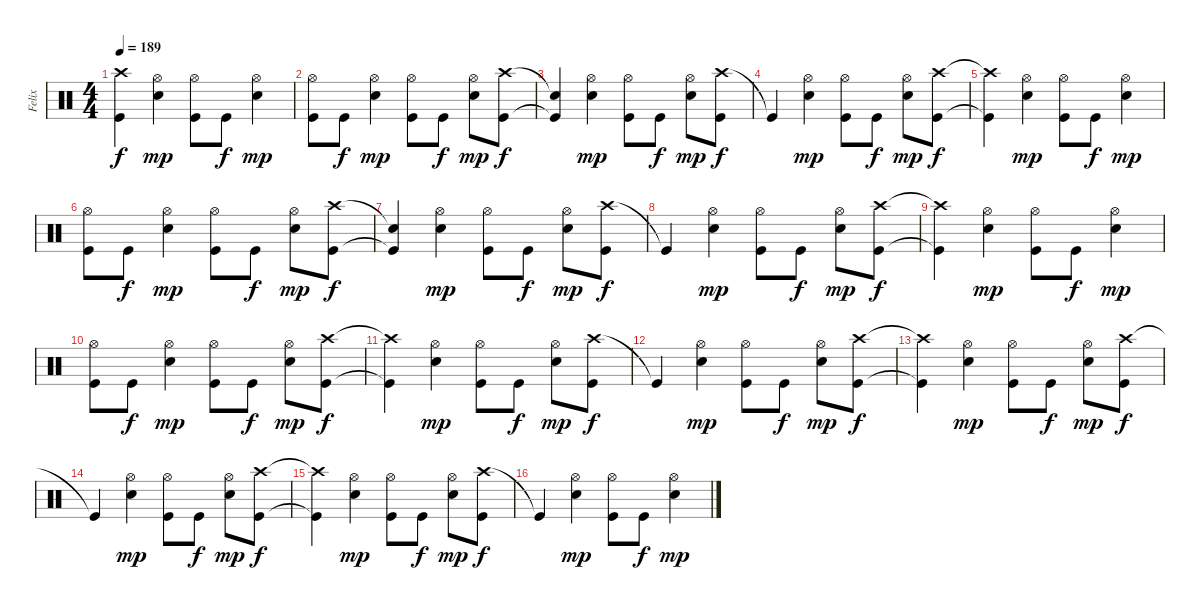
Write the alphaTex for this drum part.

\track ("Felix" "Felix") {instrument percussion}
\staff {score}
\articulation defaults
\ts (4 4)
\tempo 189
\clef neutral
\ks c
("Crash high (hit)"{t} "Kick (hit)"{t}).4{dy f} ("Hi-Hat (open)" "Snare (hit) 2").4{dy mp} ("Hi-Hat (open)" "Kick (hit)").8 "Kick (hit)".8{dy f} ("Hi-Hat (open)" "Snare (hit) 2").4{dy mp} |
("Hi-Hat (open)" "Kick (hit)").8 "Kick (hit)".8{dy f} ("Hi-Hat (open)" "Snare (hit) 2").4{dy mp} ("Hi-Hat (open)" "Kick (hit)").8 "Kick (hit)".8{dy f} ("Hi-Hat (open)" "Snare (hit) 2").8{dy mp} ("Crash high (hit)" "Kick (hit)").8{dy f} |
("Snare (hit)"{t} "Kick (hit)"{t}).4 ("Hi-Hat (open)" "Snare (hit) 2").4{dy mp} ("Hi-Hat (open)" "Kick (hit)").8 "Kick (hit)".8{dy f} ("Hi-Hat (open)" "Snare (hit) 2").8{dy mp} ("Crash high (hit)" "Kick (hit)").8{dy f} |
"Kick (hit)"{t}.4 ("Hi-Hat (open)" "Snare (hit) 2").4{dy mp} ("Hi-Hat (open)" "Kick (hit)").8 "Kick (hit)".8{dy f} ("Hi-Hat (open)" "Snare (hit) 2").8{dy mp} ("Crash high (hit)" "Kick (hit)").8{dy f} |
("Crash high (hit)"{t} "Kick (hit)"{t}).4 ("Hi-Hat (open)" "Snare (hit) 2").4{dy mp} ("Hi-Hat (open)" "Kick (hit)").8 "Kick (hit)".8{dy f} ("Hi-Hat (open)" "Snare (hit) 2").4{dy mp} |
("Hi-Hat (open)" "Kick (hit)").8 "Kick (hit)".8{dy f} ("Hi-Hat (open)" "Snare (hit) 2").4{dy mp} ("Hi-Hat (open)" "Kick (hit)").8 "Kick (hit)".8{dy f} ("Hi-Hat (open)" "Snare (hit) 2").8{dy mp} ("Crash high (hit)" "Kick (hit)").8{dy f} |
("Snare (hit)"{t} "Kick (hit)"{t}).4 ("Hi-Hat (open)" "Snare (hit) 2").4{dy mp} ("Hi-Hat (open)" "Kick (hit)").8 "Kick (hit)".8{dy f} ("Hi-Hat (open)" "Snare (hit) 2").8{dy mp} ("Crash high (hit)" "Kick (hit)").8{dy f} |
"Kick (hit)"{t}.4 ("Hi-Hat (open)" "Snare (hit) 2").4{dy mp} ("Hi-Hat (open)" "Kick (hit)").8 "Kick (hit)".8{dy f} ("Hi-Hat (open)" "Snare (hit) 2").8{dy mp} ("Crash high (hit)" "Kick (hit)").8{dy f} |
("Crash high (hit)"{t} "Kick (hit)"{t}).4 ("Hi-Hat (open)" "Snare (hit) 2").4{dy mp} ("Hi-Hat (open)" "Kick (hit)").8 "Kick (hit)".8{dy f} ("Hi-Hat (open)" "Snare (hit) 2").4{dy mp} |
("Hi-Hat (open)" "Kick (hit)").8 "Kick (hit)".8{dy f} ("Hi-Hat (open)" "Snare (hit) 2").4{dy mp} ("Hi-Hat (open)" "Kick (hit)").8 "Kick (hit)".8{dy f} ("Hi-Hat (open)" "Snare (hit) 2").8{dy mp} ("Crash high (hit)" "Kick (hit)").8{dy f} |
("Crash high (hit)"{t} "Kick (hit)"{t}).4 ("Hi-Hat (open)" "Snare (hit) 2").4{dy mp} ("Hi-Hat (open)" "Kick (hit)").8 "Kick (hit)".8{dy f} ("Hi-Hat (open)" "Snare (hit) 2").8{dy mp} ("Crash high (hit)" "Kick (hit)").8{dy f} |
"Kick (hit)"{t}.4 ("Hi-Hat (open)" "Snare (hit) 2").4{dy mp} ("Hi-Hat (open)" "Kick (hit)").8 "Kick (hit)".8{dy f} ("Hi-Hat (open)" "Snare (hit) 2").8{dy mp} ("Crash high (hit)" "Kick (hit)").8{dy f} |
("Crash high (hit)"{t} "Kick (hit)"{t}).4 ("Hi-Hat (open)" "Snare (hit) 2").4{dy mp} ("Hi-Hat (open)" "Kick (hit)").8 "Kick (hit)".8{dy f} ("Hi-Hat (open)" "Snare (hit) 2").8{dy mp} ("Crash high (hit)" "Kick (hit)").8{dy f} |
"Kick (hit)"{t}.4 ("Hi-Hat (open)" "Snare (hit) 2").4{dy mp} ("Hi-Hat (open)" "Kick (hit)").8 "Kick (hit)".8{dy f} ("Hi-Hat (open)" "Snare (hit) 2").8{dy mp} ("Crash high (hit)" "Kick (hit)").8{dy f} |
("Crash high (hit)"{t} "Kick (hit)"{t}).4 ("Hi-Hat (open)" "Snare (hit) 2").4{dy mp} ("Hi-Hat (open)" "Kick (hit)").8 "Kick (hit)".8{dy f} ("Hi-Hat (open)" "Snare (hit) 2").8{dy mp} ("Crash high (hit)" "Kick (hit)").8{dy f} |
"Kick (hit)"{t}.4 ("Hi-Hat (open)" "Snare (hit) 2").4{dy mp} ("Hi-Hat (open)" "Kick (hit)").8 "Kick (hit)".8{dy f} ("Hi-Hat (open)" "Snare (hit) 2").4{dy mp}
